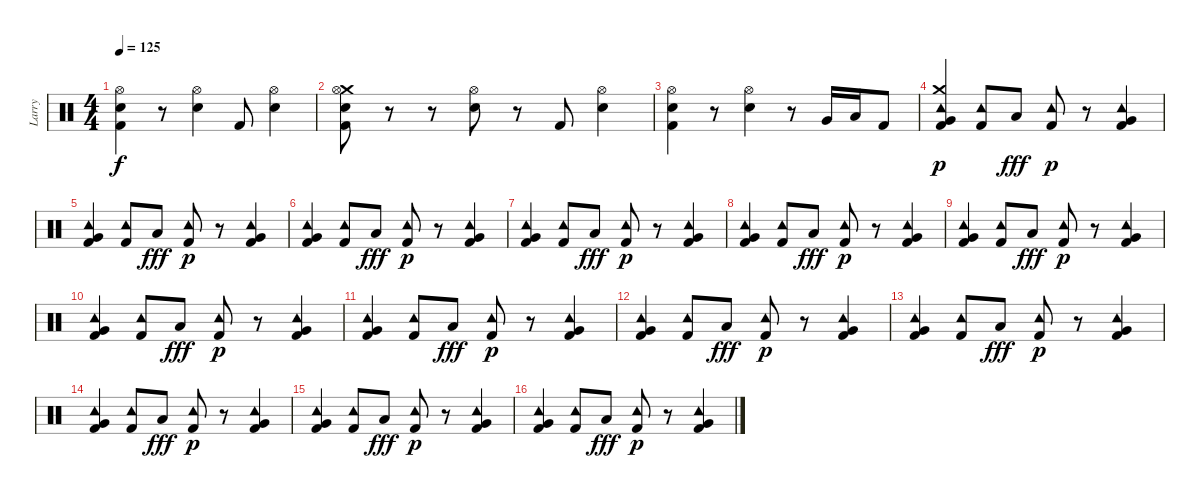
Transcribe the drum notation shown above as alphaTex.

\track ("Larry" "Larry") {instrument percussion}
\staff {score}
\articulation defaults
\ts (4 4)
\tempo 125
\clef neutral
\ks c
("Hi-Hat (open)" "Kick (hit) 2" "Electric Snare (hit)").4{dy f} r.8 ("Hi-Hat (open)" "Electric Snare (hit)").4 "Kick (hit) 2".8 ("Hi-Hat (open)" "Electric Snare (hit)").4 |
("Crash medium (hit)" "Electric Snare (hit)" "Kick (hit) 2" "Hi-Hat (open)").8 r.8 r.8 ("Hi-Hat (open)" "Electric Snare (hit)").8 r.8 "Kick (hit) 2".8 ("Hi-Hat (open)" "Electric Snare (hit)").4 |
("Electric Snare (hit)" "Kick (hit) 2" "Hi-Hat (open)").4 r.8 ("Hi-Hat (open)" "Electric Snare (hit)").4 r.8 "Very Low Tom (hit)".16 "Low Tom (hit)".16 "Kick (hit) 2".8 |
("Crash medium (hit)" "Kick (hit) 2" "Very Low Tom (hit)" "Tambourine (hit)").4{dy p} ("Kick (hit) 2" "Tambourine (hit)").8 "Low Tom (hit)".8{dy fff} ("Kick (hit) 2" "Tambourine (hit)").8{dy p} r.8 ("Kick (hit) 2" "Very Low Tom (hit)" "Tambourine (hit)").4 |
("Kick (hit) 2" "Very Low Tom (hit)" "Tambourine (hit)").4 ("Kick (hit) 2" "Tambourine (hit)").8 "Low Tom (hit)".8{dy fff} ("Kick (hit) 2" "Tambourine (hit)").8{dy p} r.8 ("Kick (hit) 2" "Very Low Tom (hit)" "Tambourine (hit)").4 |
("Kick (hit) 2" "Very Low Tom (hit)" "Tambourine (hit)").4 ("Kick (hit) 2" "Tambourine (hit)").8 "Low Tom (hit)".8{dy fff} ("Kick (hit) 2" "Tambourine (hit)").8{dy p} r.8 ("Kick (hit) 2" "Very Low Tom (hit)" "Tambourine (hit)").4 |
("Kick (hit) 2" "Very Low Tom (hit)" "Tambourine (hit)").4 ("Kick (hit) 2" "Tambourine (hit)").8 "Low Tom (hit)".8{dy fff} ("Kick (hit) 2" "Tambourine (hit)").8{dy p} r.8 ("Kick (hit) 2" "Very Low Tom (hit)" "Tambourine (hit)").4 |
("Kick (hit) 2" "Very Low Tom (hit)" "Tambourine (hit)").4 ("Kick (hit) 2" "Tambourine (hit)").8 "Low Tom (hit)".8{dy fff} ("Kick (hit) 2" "Tambourine (hit)").8{dy p} r.8 ("Kick (hit) 2" "Very Low Tom (hit)" "Tambourine (hit)").4 |
("Kick (hit) 2" "Very Low Tom (hit)" "Tambourine (hit)").4 ("Kick (hit) 2" "Tambourine (hit)").8 "Low Tom (hit)".8{dy fff} ("Kick (hit) 2" "Tambourine (hit)").8{dy p} r.8 ("Kick (hit) 2" "Very Low Tom (hit)" "Tambourine (hit)").4 |
("Kick (hit) 2" "Very Low Tom (hit)" "Tambourine (hit)").4 ("Kick (hit) 2" "Tambourine (hit)").8 "Low Tom (hit)".8{dy fff} ("Kick (hit) 2" "Tambourine (hit)").8{dy p} r.8 ("Kick (hit) 2" "Very Low Tom (hit)" "Tambourine (hit)").4 |
("Kick (hit) 2" "Very Low Tom (hit)" "Tambourine (hit)").4 ("Kick (hit) 2" "Tambourine (hit)").8 "Low Tom (hit)".8{dy fff} ("Kick (hit) 2" "Tambourine (hit)").8{dy p} r.8 ("Kick (hit) 2" "Very Low Tom (hit)" "Tambourine (hit)").4 |
("Kick (hit) 2" "Very Low Tom (hit)" "Tambourine (hit)").4 ("Kick (hit) 2" "Tambourine (hit)").8 "Low Tom (hit)".8{dy fff} ("Kick (hit) 2" "Tambourine (hit)").8{dy p} r.8 ("Kick (hit) 2" "Very Low Tom (hit)" "Tambourine (hit)").4 |
("Kick (hit) 2" "Very Low Tom (hit)" "Tambourine (hit)").4 ("Kick (hit) 2" "Tambourine (hit)").8 "Low Tom (hit)".8{dy fff} ("Kick (hit) 2" "Tambourine (hit)").8{dy p} r.8 ("Kick (hit) 2" "Very Low Tom (hit)" "Tambourine (hit)").4 |
("Kick (hit) 2" "Very Low Tom (hit)" "Tambourine (hit)").4 ("Kick (hit) 2" "Tambourine (hit)").8 "Low Tom (hit)".8{dy fff} ("Kick (hit) 2" "Tambourine (hit)").8{dy p} r.8 ("Kick (hit) 2" "Very Low Tom (hit)" "Tambourine (hit)").4 |
("Kick (hit) 2" "Very Low Tom (hit)" "Tambourine (hit)").4 ("Kick (hit) 2" "Tambourine (hit)").8 "Low Tom (hit)".8{dy fff} ("Kick (hit) 2" "Tambourine (hit)").8{dy p} r.8 ("Kick (hit) 2" "Very Low Tom (hit)" "Tambourine (hit)").4 |
("Kick (hit) 2" "Very Low Tom (hit)" "Tambourine (hit)").4 ("Kick (hit) 2" "Tambourine (hit)").8 "Low Tom (hit)".8{dy fff} ("Kick (hit) 2" "Tambourine (hit)").8{dy p} r.8 ("Kick (hit) 2" "Very Low Tom (hit)" "Tambourine (hit)").4
